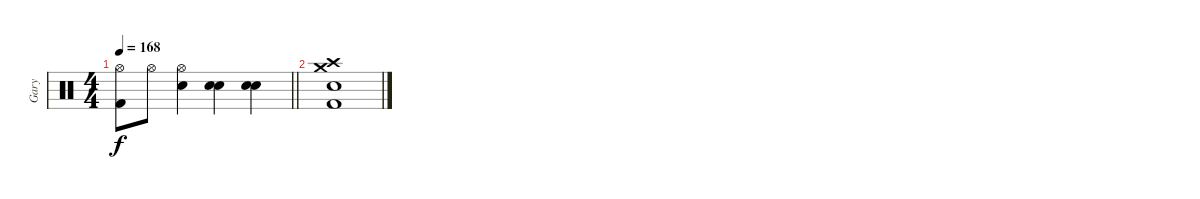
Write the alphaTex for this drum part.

\track ("Gary" "Gary") {instrument percussion}
\staff {score}
\articulation defaults
\ts (4 4)
\tempo 168
\clef neutral
\barLineRight lightlight
\ks c
("Hi-Hat (open)" "Kick (hit) 2").8{dy f} "Hi-Hat (open)".8 ("Hi-Hat (open)" "Electric Snare (hit)").4 ("Electric Snare (hit)" "Electric Snare (hit)").4{bd 120} ("Electric Snare (hit)" "Electric Snare (hit)").4{bd 120} |
("Crash high (hit)" "Crash medium (hit)" "Electric Snare (hit)" "Kick (hit) 2").1
